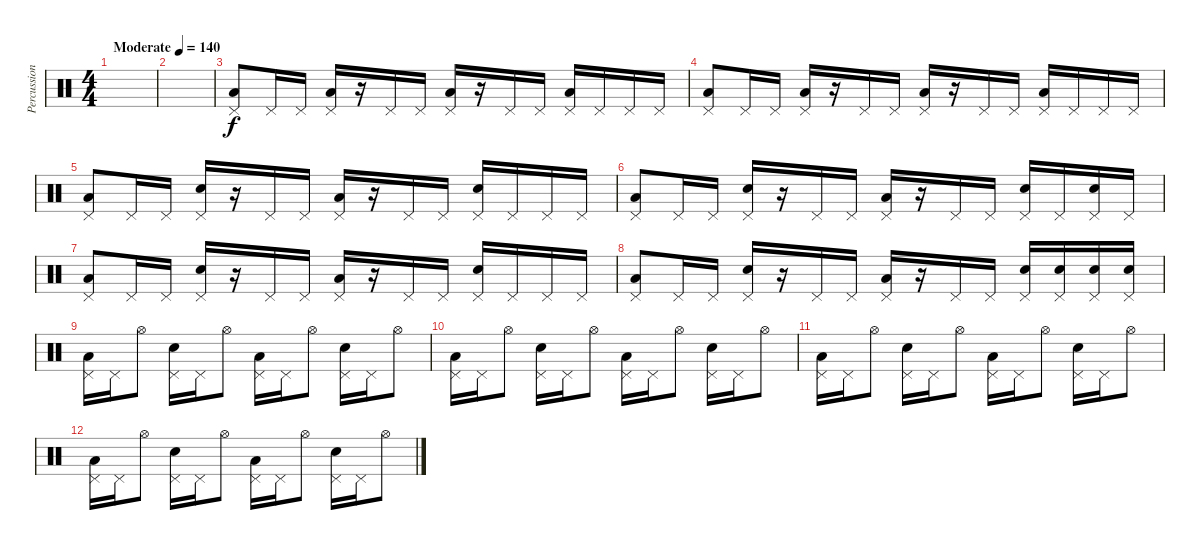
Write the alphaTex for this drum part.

\track ("Percussion" "Percussion") {instrument percussion}
\staff {score}
\articulation defaults
\ts (4 4)
\tempo (140 "Moderate")
\clef neutral
\ks c
|
|
("Low Floor Tom (hit)" "Pedal Hi-Hat (hit)").8 "Pedal Hi-Hat (hit)".16 "Pedal Hi-Hat (hit)".16 ("Low Floor Tom (hit)" "Pedal Hi-Hat (hit)").16 r.16 "Pedal Hi-Hat (hit)".16 "Pedal Hi-Hat (hit)".16 ("Low Floor Tom (hit)" "Pedal Hi-Hat (hit)").16 r.16 "Pedal Hi-Hat (hit)".16 "Pedal Hi-Hat (hit)".16 ("Low Floor Tom (hit)" "Pedal Hi-Hat (hit)").16 "Pedal Hi-Hat (hit)".16 "Pedal Hi-Hat (hit)".16 "Pedal Hi-Hat (hit)".16 |
("Low Floor Tom (hit)" "Pedal Hi-Hat (hit)").8 "Pedal Hi-Hat (hit)".16 "Pedal Hi-Hat (hit)".16 ("Low Floor Tom (hit)" "Pedal Hi-Hat (hit)").16 r.16 "Pedal Hi-Hat (hit)".16 "Pedal Hi-Hat (hit)".16 ("Low Floor Tom (hit)" "Pedal Hi-Hat (hit)").16 r.16 "Pedal Hi-Hat (hit)".16 "Pedal Hi-Hat (hit)".16 ("Low Floor Tom (hit)" "Pedal Hi-Hat (hit)").16 "Pedal Hi-Hat (hit)".16 "Pedal Hi-Hat (hit)".16 "Pedal Hi-Hat (hit)".16 |
("Low Floor Tom (hit)" "Pedal Hi-Hat (hit)").8 "Pedal Hi-Hat (hit)".16 "Pedal Hi-Hat (hit)".16 ("Electric Snare (hit)" "Pedal Hi-Hat (hit)").16 r.16 "Pedal Hi-Hat (hit)".16 "Pedal Hi-Hat (hit)".16 ("Low Floor Tom (hit)" "Pedal Hi-Hat (hit)").16 r.16 "Pedal Hi-Hat (hit)".16 "Pedal Hi-Hat (hit)".16 ("Electric Snare (hit)" "Pedal Hi-Hat (hit)").16 "Pedal Hi-Hat (hit)".16 "Pedal Hi-Hat (hit)".16 "Pedal Hi-Hat (hit)".16 |
("Low Floor Tom (hit)" "Pedal Hi-Hat (hit)").8 "Pedal Hi-Hat (hit)".16 "Pedal Hi-Hat (hit)".16 ("Electric Snare (hit)" "Pedal Hi-Hat (hit)").16 r.16 "Pedal Hi-Hat (hit)".16 "Pedal Hi-Hat (hit)".16 ("Low Floor Tom (hit)" "Pedal Hi-Hat (hit)").16 r.16 "Pedal Hi-Hat (hit)".16 "Pedal Hi-Hat (hit)".16 ("Electric Snare (hit)" "Pedal Hi-Hat (hit)").16 "Pedal Hi-Hat (hit)".16 ("Electric Snare (hit)" "Pedal Hi-Hat (hit)").16 "Pedal Hi-Hat (hit)".16 |
("Low Floor Tom (hit)" "Pedal Hi-Hat (hit)").8 "Pedal Hi-Hat (hit)".16 "Pedal Hi-Hat (hit)".16 ("Electric Snare (hit)" "Pedal Hi-Hat (hit)").16 r.16 "Pedal Hi-Hat (hit)".16 "Pedal Hi-Hat (hit)".16 ("Low Floor Tom (hit)" "Pedal Hi-Hat (hit)").16 r.16 "Pedal Hi-Hat (hit)".16 "Pedal Hi-Hat (hit)".16 ("Electric Snare (hit)" "Pedal Hi-Hat (hit)").16 "Pedal Hi-Hat (hit)".16 "Pedal Hi-Hat (hit)".16 "Pedal Hi-Hat (hit)".16 |
("Low Floor Tom (hit)" "Pedal Hi-Hat (hit)").8 "Pedal Hi-Hat (hit)".16 "Pedal Hi-Hat (hit)".16 ("Electric Snare (hit)" "Pedal Hi-Hat (hit)").16 r.16 "Pedal Hi-Hat (hit)".16 "Pedal Hi-Hat (hit)".16 ("Low Floor Tom (hit)" "Pedal Hi-Hat (hit)").16 r.16 "Pedal Hi-Hat (hit)".16 "Pedal Hi-Hat (hit)".16 ("Electric Snare (hit)" "Pedal Hi-Hat (hit)").16 ("Electric Snare (hit)" "Pedal Hi-Hat (hit)").16 ("Electric Snare (hit)" "Pedal Hi-Hat (hit)").16 ("Electric Snare (hit)" "Pedal Hi-Hat (hit)").16 |
("Low Floor Tom (hit)" "Pedal Hi-Hat (hit)").16 "Pedal Hi-Hat (hit)".16 "Hi-Hat (open)".8 ("Electric Snare (hit)" "Pedal Hi-Hat (hit)").16 "Pedal Hi-Hat (hit)".16 "Hi-Hat (open)".8 ("Low Floor Tom (hit)" "Pedal Hi-Hat (hit)").16 "Pedal Hi-Hat (hit)".16 "Hi-Hat (open)".8 ("Electric Snare (hit)" "Pedal Hi-Hat (hit)").16 "Pedal Hi-Hat (hit)".16 "Hi-Hat (open)".8 |
("Low Floor Tom (hit)" "Pedal Hi-Hat (hit)").16 "Pedal Hi-Hat (hit)".16 "Hi-Hat (open)".8 ("Electric Snare (hit)" "Pedal Hi-Hat (hit)").16 "Pedal Hi-Hat (hit)".16 "Hi-Hat (open)".8 ("Low Floor Tom (hit)" "Pedal Hi-Hat (hit)").16 "Pedal Hi-Hat (hit)".16 "Hi-Hat (open)".8 ("Electric Snare (hit)" "Pedal Hi-Hat (hit)").16 "Pedal Hi-Hat (hit)".16 "Hi-Hat (open)".8 |
("Low Floor Tom (hit)" "Pedal Hi-Hat (hit)").16 "Pedal Hi-Hat (hit)".16 "Hi-Hat (open)".8 ("Electric Snare (hit)" "Pedal Hi-Hat (hit)").16 "Pedal Hi-Hat (hit)".16 "Hi-Hat (open)".8 ("Low Floor Tom (hit)" "Pedal Hi-Hat (hit)").16 "Pedal Hi-Hat (hit)".16 "Hi-Hat (open)".8 ("Electric Snare (hit)" "Pedal Hi-Hat (hit)").16 "Pedal Hi-Hat (hit)".16 "Hi-Hat (open)".8 |
("Low Floor Tom (hit)" "Pedal Hi-Hat (hit)").16 "Pedal Hi-Hat (hit)".16 "Hi-Hat (open)".8 ("Electric Snare (hit)" "Pedal Hi-Hat (hit)").16 "Pedal Hi-Hat (hit)".16 "Hi-Hat (open)".8 ("Low Floor Tom (hit)" "Pedal Hi-Hat (hit)").16 "Pedal Hi-Hat (hit)".16 "Hi-Hat (open)".8 ("Electric Snare (hit)" "Pedal Hi-Hat (hit)").16 "Pedal Hi-Hat (hit)".16 "Hi-Hat (open)".8
